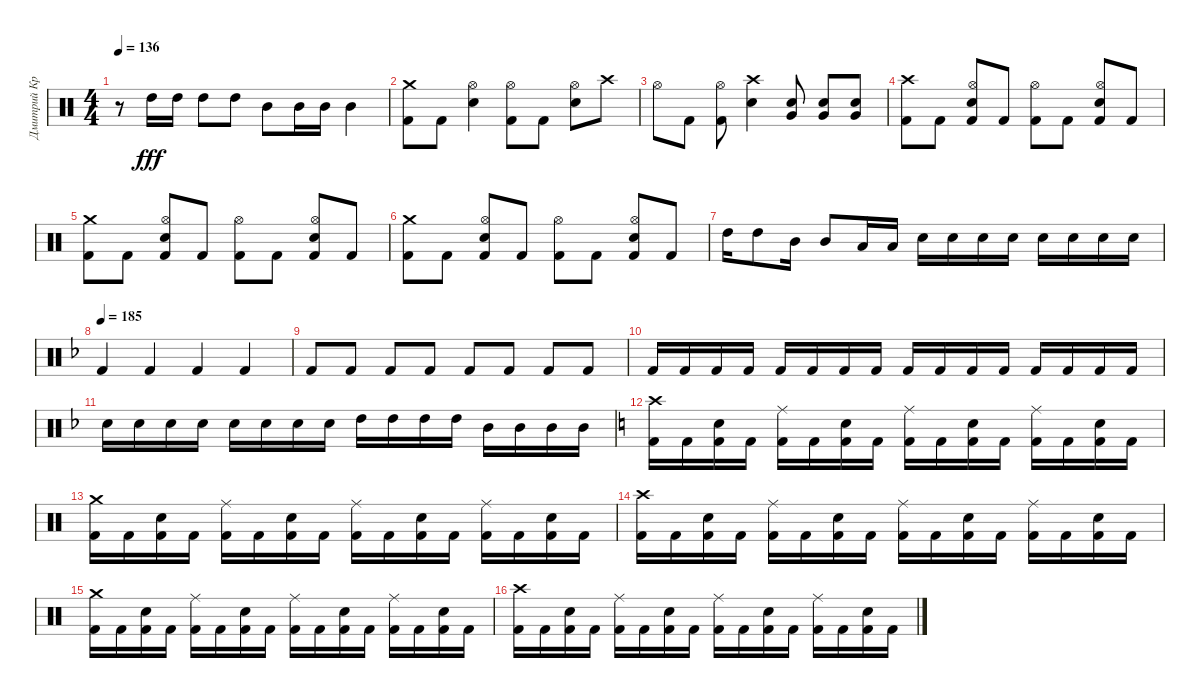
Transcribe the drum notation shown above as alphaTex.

\track ("Дмитрий Кривенков" "Дмитрий Кр") {instrument percussion}
\staff {score}
\articulation defaults
\ts (4 4)
\tempo 136
\clef neutral
\ks c
r.8{dy fff} "High Tom (hit)".16 "High Tom (hit)".16 "High Tom (hit)".8 "High Tom (hit)".8 "Mid Tom (hit)".8 "Mid Tom (hit)".16 "Mid Tom (hit)".16 "Mid Tom (hit)".4 |
("Crash medium (hit)" "Kick (hit) 2").8 "Kick (hit) 2".8 ("Hi-Hat (open)" "Electric Snare (hit)").4 ("Hi-Hat (open)" "Kick (hit) 2").8 "Kick (hit) 2".8 ("Hi-Hat (open)" "Electric Snare (hit)").8 "Crash high (hit)".8 |
"Hi-Hat (open)".8 "Kick (hit) 2".8 ("Hi-Hat (open)" "Kick (hit) 2").8 ("Crash high (hit)" "Electric Snare (hit)").4 ("Very Low Tom (hit)" "Electric Snare (hit)").8 ("Very Low Tom (hit)" "Electric Snare (hit)").8 ("Very Low Tom (hit)" "Electric Snare (hit)").8 |
("Crash high (hit)" "Kick (hit) 2").8 "Kick (hit) 2".8 ("Hi-Hat (open)" "Electric Snare (hit)" "Kick (hit) 2").8 "Kick (hit) 2".8 ("Hi-Hat (open)" "Kick (hit) 2").8 "Kick (hit) 2".8 ("Hi-Hat (open)" "Electric Snare (hit)" "Kick (hit) 2").8 "Kick (hit) 2".8 |
("Crash medium (hit)" "Kick (hit) 2").8 "Kick (hit) 2".8 ("Hi-Hat (open)" "Electric Snare (hit)" "Kick (hit) 2").8 "Kick (hit) 2".8 ("Hi-Hat (open)" "Kick (hit) 2").8 "Kick (hit) 2".8 ("Hi-Hat (open)" "Electric Snare (hit)" "Kick (hit) 2").8 "Kick (hit) 2".8 |
("Crash medium (hit)" "Kick (hit) 2").8 "Kick (hit) 2".8 ("Hi-Hat (open)" "Electric Snare (hit)" "Kick (hit) 2").8 "Kick (hit) 2".8 ("Hi-Hat (open)" "Kick (hit) 2").8 "Kick (hit) 2".8 ("Hi-Hat (open)" "Electric Snare (hit)" "Kick (hit) 2").8 "Kick (hit) 2".8 |
"High Tom (hit)".16 "High Tom (hit)".8 "Mid Tom (hit)".16 "Mid Tom (hit)".8 "Low Tom (hit)".16 "Low Tom (hit)".16 "Electric Snare (hit)".16 "Electric Snare (hit)".16 "Electric Snare (hit)".16 "Electric Snare (hit)".16 "Electric Snare (hit)".16 "Electric Snare (hit)".16 "Electric Snare (hit)".16 "Electric Snare (hit)".16 |
\tempo 185
\ks f "Kick (hit) 2".4 "Kick (hit) 2".4 "Kick (hit) 2".4 "Kick (hit) 2".4
|
"Kick (hit) 2".8 "Kick (hit) 2".8 "Kick (hit) 2".8 "Kick (hit) 2".8 "Kick (hit) 2".8 "Kick (hit) 2".8 "Kick (hit) 2".8 "Kick (hit) 2".8 |
"Kick (hit) 2".16 "Kick (hit) 2".16 "Kick (hit) 2".16 "Kick (hit) 2".16 "Kick (hit) 2".16 "Kick (hit) 2".16 "Kick (hit) 2".16 "Kick (hit) 2".16 "Kick (hit) 2".16 "Kick (hit) 2".16 "Kick (hit) 2".16 "Kick (hit) 2".16 "Kick (hit) 2".16 "Kick (hit) 2".16 "Kick (hit) 2".16 "Kick (hit) 2".16 |
"Electric Snare (hit)".16 "Electric Snare (hit)".16 "Electric Snare (hit)".16 "Electric Snare (hit)".16 "Electric Snare (hit)".16 "Electric Snare (hit)".16 "Electric Snare (hit)".16 "Electric Snare (hit)".16 "High Tom (hit)".16 "High Tom (hit)".16 "High Tom (hit)".16 "High Tom (hit)".16 "Mid Tom (hit)".16 "Mid Tom (hit)".16 "Mid Tom (hit)".16 "Mid Tom (hit)".16 |
\ks c
("Crash high (hit)" "Kick (hit) 2").16 "Kick (hit) 2".16 ("Kick (hit) 2" "Electric Snare (hit)").16 "Kick (hit) 2".16 ("Ride (middle)" "Kick (hit) 2").16 "Kick (hit) 2".16 ("Electric Snare (hit)" "Kick (hit) 2").16 "Kick (hit) 2".16 ("Ride (middle)" "Kick (hit) 2").16 "Kick (hit) 2".16 ("Electric Snare (hit)" "Kick (hit) 2").16 "Kick (hit) 2".16 ("Ride (middle)" "Kick (hit) 2").16 "Kick (hit) 2".16 ("Electric Snare (hit)" "Kick (hit) 2").16 "Kick (hit) 2".16 |
("Crash medium (hit)" "Kick (hit) 2").16 "Kick (hit) 2".16 ("Kick (hit) 2" "Electric Snare (hit)").16 "Kick (hit) 2".16 ("Ride (middle)" "Kick (hit) 2").16 "Kick (hit) 2".16 ("Electric Snare (hit)" "Kick (hit) 2").16 "Kick (hit) 2".16 ("Ride (middle)" "Kick (hit) 2").16 "Kick (hit) 2".16 ("Electric Snare (hit)" "Kick (hit) 2").16 "Kick (hit) 2".16 ("Ride (middle)" "Kick (hit) 2").16 "Kick (hit) 2".16 ("Electric Snare (hit)" "Kick (hit) 2").16 "Kick (hit) 2".16 |
("Crash high (hit)" "Kick (hit) 2").16 "Kick (hit) 2".16 ("Kick (hit) 2" "Electric Snare (hit)").16 "Kick (hit) 2".16 ("Ride (middle)" "Kick (hit) 2").16 "Kick (hit) 2".16 ("Electric Snare (hit)" "Kick (hit) 2").16 "Kick (hit) 2".16 ("Ride (middle)" "Kick (hit) 2").16 "Kick (hit) 2".16 ("Electric Snare (hit)" "Kick (hit) 2").16 "Kick (hit) 2".16 ("Ride (middle)" "Kick (hit) 2").16 "Kick (hit) 2".16 ("Electric Snare (hit)" "Kick (hit) 2").16 "Kick (hit) 2".16 |
("Crash medium (hit)" "Kick (hit) 2").16 "Kick (hit) 2".16 ("Kick (hit) 2" "Electric Snare (hit)").16 "Kick (hit) 2".16 ("Ride (middle)" "Kick (hit) 2").16 "Kick (hit) 2".16 ("Electric Snare (hit)" "Kick (hit) 2").16 "Kick (hit) 2".16 ("Ride (middle)" "Kick (hit) 2").16 "Kick (hit) 2".16 ("Electric Snare (hit)" "Kick (hit) 2").16 "Kick (hit) 2".16 ("Ride (middle)" "Kick (hit) 2").16 "Kick (hit) 2".16 ("Electric Snare (hit)" "Kick (hit) 2").16 "Kick (hit) 2".16 |
("Crash high (hit)" "Kick (hit) 2").16 "Kick (hit) 2".16 ("Kick (hit) 2" "Electric Snare (hit)").16 "Kick (hit) 2".16 ("Ride (middle)" "Kick (hit) 2").16 "Kick (hit) 2".16 ("Electric Snare (hit)" "Kick (hit) 2").16 "Kick (hit) 2".16 ("Ride (middle)" "Kick (hit) 2").16 "Kick (hit) 2".16 ("Electric Snare (hit)" "Kick (hit) 2").16 "Kick (hit) 2".16 ("Ride (middle)" "Kick (hit) 2").16 "Kick (hit) 2".16 ("Electric Snare (hit)" "Kick (hit) 2").16 "Kick (hit) 2".16
